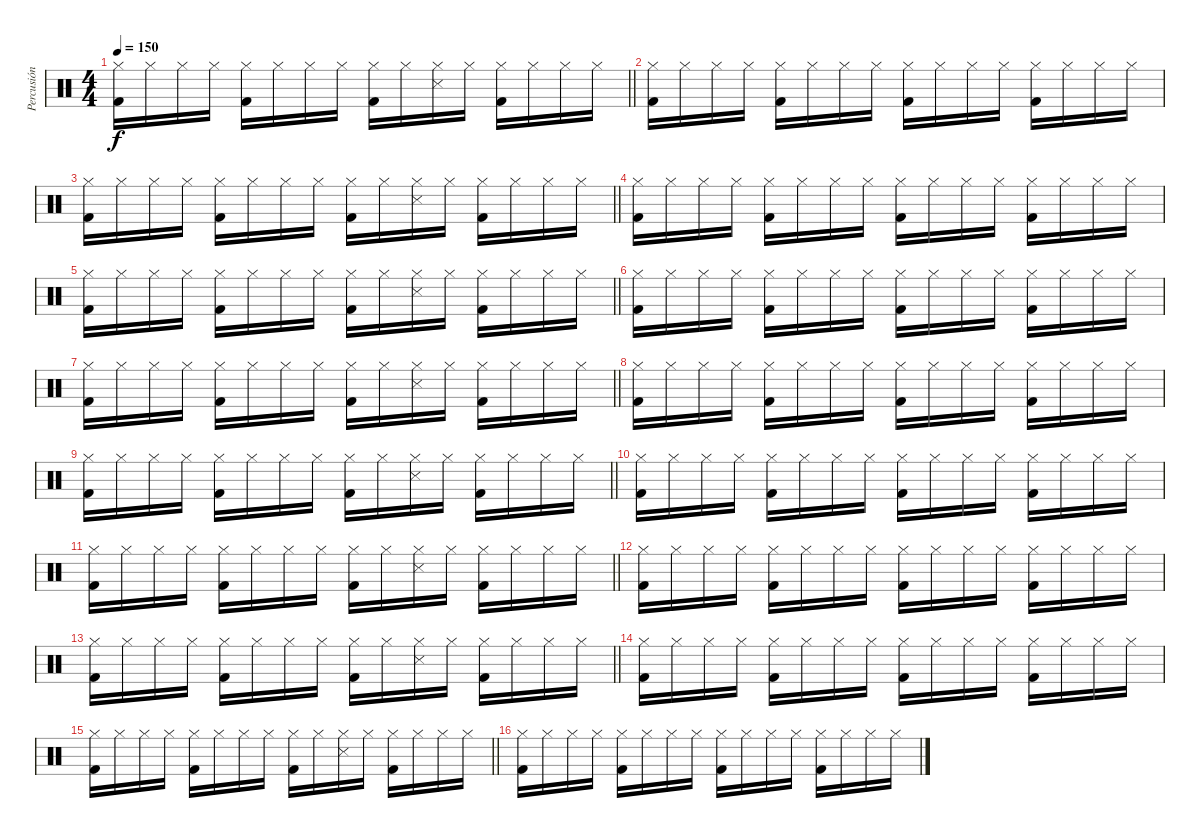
\track ("Percusión" "Percusión") {instrument percussion}
\staff {score}
\articulation defaults
\ts (4 4)
\tempo 150
\clef neutral
\barLineRight lightlight
\ks c
("Kick (hit) 2" "Hi-Hat (closed)").16{dy f} "Hi-Hat (closed)".16 "Hi-Hat (closed)".16 "Hi-Hat (closed)".16 ("Kick (hit) 2" "Hi-Hat (closed)").16 "Hi-Hat (closed)".16 "Hi-Hat (closed)".16 "Hi-Hat (closed)".16 ("Kick (hit) 2" "Hi-Hat (closed)").16 "Hi-Hat (closed)".16 ("Snare (side stick) 3" "Hi-Hat (closed)").16 "Hi-Hat (closed)".16 ("Kick (hit) 2" "Hi-Hat (closed)").16 "Hi-Hat (closed)".16 "Hi-Hat (closed)".16 "Hi-Hat (closed)".16 |
("Kick (hit) 2" "Hi-Hat (closed)").16 "Hi-Hat (closed)".16 "Hi-Hat (closed)".16 "Hi-Hat (closed)".16 ("Kick (hit) 2" "Hi-Hat (closed)").16 "Hi-Hat (closed)".16 "Hi-Hat (closed)".16 "Hi-Hat (closed)".16 ("Kick (hit) 2" "Hi-Hat (closed)").16 "Hi-Hat (closed)".16 "Hi-Hat (closed)".16 "Hi-Hat (closed)".16 ("Kick (hit) 2" "Hi-Hat (closed)").16 "Hi-Hat (closed)".16 "Hi-Hat (closed)".16 "Hi-Hat (closed)".16 |
\barLineRight lightlight
("Kick (hit) 2" "Hi-Hat (closed)").16 "Hi-Hat (closed)".16 "Hi-Hat (closed)".16 "Hi-Hat (closed)".16 ("Kick (hit) 2" "Hi-Hat (closed)").16 "Hi-Hat (closed)".16 "Hi-Hat (closed)".16 "Hi-Hat (closed)".16 ("Kick (hit) 2" "Hi-Hat (closed)").16 "Hi-Hat (closed)".16 ("Snare (side stick) 3" "Hi-Hat (closed)").16 "Hi-Hat (closed)".16 ("Kick (hit) 2" "Hi-Hat (closed)").16 "Hi-Hat (closed)".16 "Hi-Hat (closed)".16 "Hi-Hat (closed)".16 |
("Kick (hit) 2" "Hi-Hat (closed)").16 "Hi-Hat (closed)".16 "Hi-Hat (closed)".16 "Hi-Hat (closed)".16 ("Kick (hit) 2" "Hi-Hat (closed)").16 "Hi-Hat (closed)".16 "Hi-Hat (closed)".16 "Hi-Hat (closed)".16 ("Kick (hit) 2" "Hi-Hat (closed)").16 "Hi-Hat (closed)".16 "Hi-Hat (closed)".16 "Hi-Hat (closed)".16 ("Kick (hit) 2" "Hi-Hat (closed)").16 "Hi-Hat (closed)".16 "Hi-Hat (closed)".16 "Hi-Hat (closed)".16 |
\barLineRight lightlight
("Kick (hit) 2" "Hi-Hat (closed)").16 "Hi-Hat (closed)".16 "Hi-Hat (closed)".16 "Hi-Hat (closed)".16 ("Kick (hit) 2" "Hi-Hat (closed)").16 "Hi-Hat (closed)".16 "Hi-Hat (closed)".16 "Hi-Hat (closed)".16 ("Kick (hit) 2" "Hi-Hat (closed)").16 "Hi-Hat (closed)".16 ("Snare (side stick) 3" "Hi-Hat (closed)").16 "Hi-Hat (closed)".16 ("Kick (hit) 2" "Hi-Hat (closed)").16 "Hi-Hat (closed)".16 "Hi-Hat (closed)".16 "Hi-Hat (closed)".16 |
("Kick (hit) 2" "Hi-Hat (closed)").16 "Hi-Hat (closed)".16 "Hi-Hat (closed)".16 "Hi-Hat (closed)".16 ("Kick (hit) 2" "Hi-Hat (closed)").16 "Hi-Hat (closed)".16 "Hi-Hat (closed)".16 "Hi-Hat (closed)".16 ("Kick (hit) 2" "Hi-Hat (closed)").16 "Hi-Hat (closed)".16 "Hi-Hat (closed)".16 "Hi-Hat (closed)".16 ("Kick (hit) 2" "Hi-Hat (closed)").16 "Hi-Hat (closed)".16 "Hi-Hat (closed)".16 "Hi-Hat (closed)".16 |
\barLineRight lightlight
("Kick (hit) 2" "Hi-Hat (closed)").16 "Hi-Hat (closed)".16 "Hi-Hat (closed)".16 "Hi-Hat (closed)".16 ("Kick (hit) 2" "Hi-Hat (closed)").16 "Hi-Hat (closed)".16 "Hi-Hat (closed)".16 "Hi-Hat (closed)".16 ("Kick (hit) 2" "Hi-Hat (closed)").16 "Hi-Hat (closed)".16 ("Snare (side stick) 3" "Hi-Hat (closed)").16 "Hi-Hat (closed)".16 ("Kick (hit) 2" "Hi-Hat (closed)").16 "Hi-Hat (closed)".16 "Hi-Hat (closed)".16 "Hi-Hat (closed)".16 |
("Kick (hit) 2" "Hi-Hat (closed)").16 "Hi-Hat (closed)".16 "Hi-Hat (closed)".16 "Hi-Hat (closed)".16 ("Kick (hit) 2" "Hi-Hat (closed)").16 "Hi-Hat (closed)".16 "Hi-Hat (closed)".16 "Hi-Hat (closed)".16 ("Kick (hit) 2" "Hi-Hat (closed)").16 "Hi-Hat (closed)".16 "Hi-Hat (closed)".16 "Hi-Hat (closed)".16 ("Kick (hit) 2" "Hi-Hat (closed)").16 "Hi-Hat (closed)".16 "Hi-Hat (closed)".16 "Hi-Hat (closed)".16 |
\barLineRight lightlight
("Kick (hit) 2" "Hi-Hat (closed)").16 "Hi-Hat (closed)".16 "Hi-Hat (closed)".16 "Hi-Hat (closed)".16 ("Kick (hit) 2" "Hi-Hat (closed)").16 "Hi-Hat (closed)".16 "Hi-Hat (closed)".16 "Hi-Hat (closed)".16 ("Kick (hit) 2" "Hi-Hat (closed)").16 "Hi-Hat (closed)".16 ("Snare (side stick) 3" "Hi-Hat (closed)").16 "Hi-Hat (closed)".16 ("Kick (hit) 2" "Hi-Hat (closed)").16 "Hi-Hat (closed)".16 "Hi-Hat (closed)".16 "Hi-Hat (closed)".16 |
("Kick (hit) 2" "Hi-Hat (closed)").16 "Hi-Hat (closed)".16 "Hi-Hat (closed)".16 "Hi-Hat (closed)".16 ("Kick (hit) 2" "Hi-Hat (closed)").16 "Hi-Hat (closed)".16 "Hi-Hat (closed)".16 "Hi-Hat (closed)".16 ("Kick (hit) 2" "Hi-Hat (closed)").16 "Hi-Hat (closed)".16 "Hi-Hat (closed)".16 "Hi-Hat (closed)".16 ("Kick (hit) 2" "Hi-Hat (closed)").16 "Hi-Hat (closed)".16 "Hi-Hat (closed)".16 "Hi-Hat (closed)".16 |
\barLineRight lightlight
("Kick (hit) 2" "Hi-Hat (closed)").16 "Hi-Hat (closed)".16 "Hi-Hat (closed)".16 "Hi-Hat (closed)".16 ("Kick (hit) 2" "Hi-Hat (closed)").16 "Hi-Hat (closed)".16 "Hi-Hat (closed)".16 "Hi-Hat (closed)".16 ("Kick (hit) 2" "Hi-Hat (closed)").16 "Hi-Hat (closed)".16 ("Snare (side stick) 3" "Hi-Hat (closed)").16 "Hi-Hat (closed)".16 ("Kick (hit) 2" "Hi-Hat (closed)").16 "Hi-Hat (closed)".16 "Hi-Hat (closed)".16 "Hi-Hat (closed)".16 |
("Kick (hit) 2" "Hi-Hat (closed)").16 "Hi-Hat (closed)".16 "Hi-Hat (closed)".16 "Hi-Hat (closed)".16 ("Kick (hit) 2" "Hi-Hat (closed)").16 "Hi-Hat (closed)".16 "Hi-Hat (closed)".16 "Hi-Hat (closed)".16 ("Kick (hit) 2" "Hi-Hat (closed)").16 "Hi-Hat (closed)".16 "Hi-Hat (closed)".16 "Hi-Hat (closed)".16 ("Kick (hit) 2" "Hi-Hat (closed)").16 "Hi-Hat (closed)".16 "Hi-Hat (closed)".16 "Hi-Hat (closed)".16 |
\barLineRight lightlight
("Kick (hit) 2" "Hi-Hat (closed)").16 "Hi-Hat (closed)".16 "Hi-Hat (closed)".16 "Hi-Hat (closed)".16 ("Kick (hit) 2" "Hi-Hat (closed)").16 "Hi-Hat (closed)".16 "Hi-Hat (closed)".16 "Hi-Hat (closed)".16 ("Kick (hit) 2" "Hi-Hat (closed)").16 "Hi-Hat (closed)".16 ("Snare (side stick) 3" "Hi-Hat (closed)").16 "Hi-Hat (closed)".16 ("Kick (hit) 2" "Hi-Hat (closed)").16 "Hi-Hat (closed)".16 "Hi-Hat (closed)".16 "Hi-Hat (closed)".16 |
("Kick (hit) 2" "Hi-Hat (closed)").16 "Hi-Hat (closed)".16 "Hi-Hat (closed)".16 "Hi-Hat (closed)".16 ("Kick (hit) 2" "Hi-Hat (closed)").16 "Hi-Hat (closed)".16 "Hi-Hat (closed)".16 "Hi-Hat (closed)".16 ("Kick (hit) 2" "Hi-Hat (closed)").16 "Hi-Hat (closed)".16 "Hi-Hat (closed)".16 "Hi-Hat (closed)".16 ("Kick (hit) 2" "Hi-Hat (closed)").16 "Hi-Hat (closed)".16 "Hi-Hat (closed)".16 "Hi-Hat (closed)".16 |
\barLineRight lightlight
("Kick (hit) 2" "Hi-Hat (closed)").16 "Hi-Hat (closed)".16 "Hi-Hat (closed)".16 "Hi-Hat (closed)".16 ("Kick (hit) 2" "Hi-Hat (closed)").16 "Hi-Hat (closed)".16 "Hi-Hat (closed)".16 "Hi-Hat (closed)".16 ("Kick (hit) 2" "Hi-Hat (closed)").16 "Hi-Hat (closed)".16 ("Snare (side stick) 3" "Hi-Hat (closed)").16 "Hi-Hat (closed)".16 ("Kick (hit) 2" "Hi-Hat (closed)").16 "Hi-Hat (closed)".16 "Hi-Hat (closed)".16 "Hi-Hat (closed)".16 |
("Kick (hit) 2" "Hi-Hat (closed)").16 "Hi-Hat (closed)".16 "Hi-Hat (closed)".16 "Hi-Hat (closed)".16 ("Kick (hit) 2" "Hi-Hat (closed)").16 "Hi-Hat (closed)".16 "Hi-Hat (closed)".16 "Hi-Hat (closed)".16 ("Kick (hit) 2" "Hi-Hat (closed)").16 "Hi-Hat (closed)".16 "Hi-Hat (closed)".16 "Hi-Hat (closed)".16 ("Kick (hit) 2" "Hi-Hat (closed)").16 "Hi-Hat (closed)".16 "Hi-Hat (closed)".16 "Hi-Hat (closed)".16
